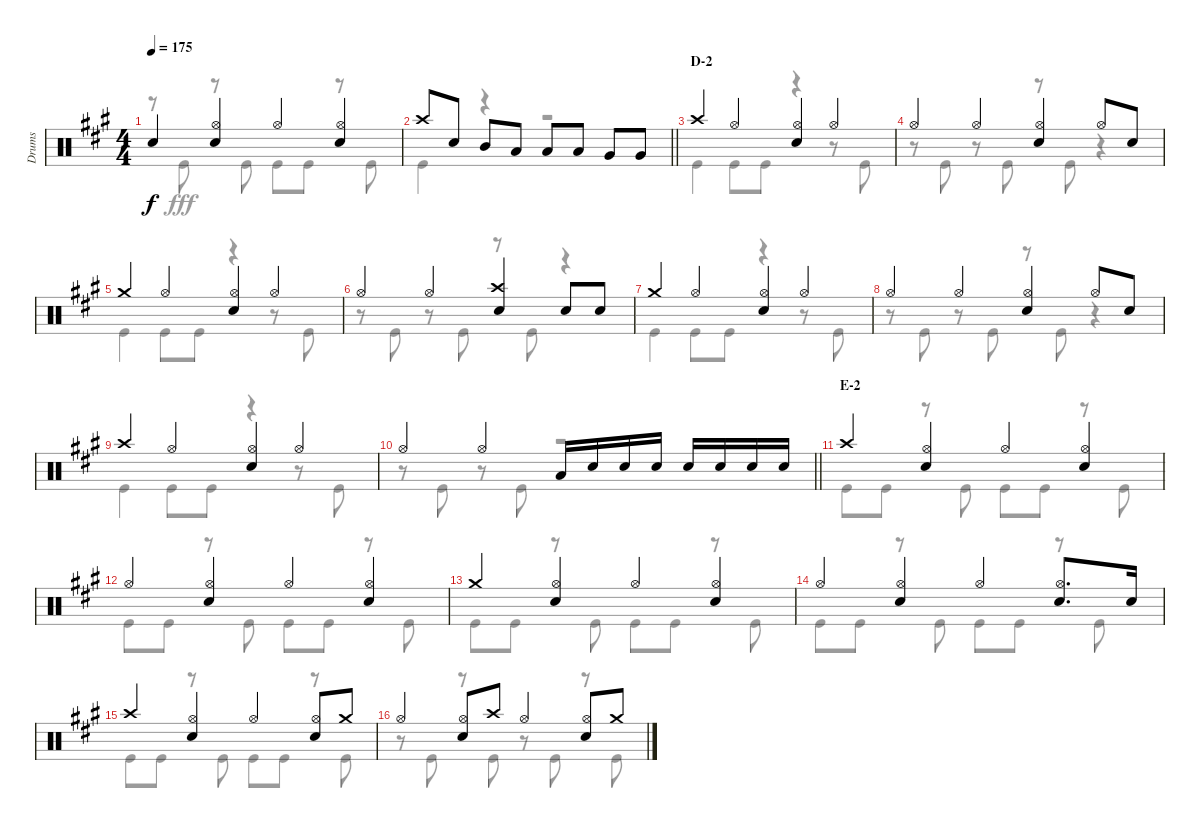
\track ("Drums" "Drums") {instrument percussion}
\staff {score}
\articulation defaults
\voice
\ts (4 4)
\tempo 175
\clef neutral
\ks a "Snare (hit)"{t}.4{dy f}
("Hi-Hat (open)" "Snare (hit) 2").4 "Hi-Hat (open)".4 ("Hi-Hat (open)" "Snare (hit) 2").4 |
\barLineRight lightlight "Crash high (hit)".8 "Snare (hit) 2".8 "Mid Tom (hit)".8 "Low Tom (hit)".8 "Low Tom (hit)".8 "Low Tom (hit)".8 "Very Low Tom (hit)".8 "Very Low Tom (hit)".8
|
\section ("" "D-2")
"Crash high (hit)".4 "Hi-Hat (open)".4 ("Hi-Hat (open)" "Snare (hit) 2").4 "Hi-Hat (open)".4 |
"Hi-Hat (open)".4 "Hi-Hat (open)".4 ("Hi-Hat (open)" "Snare (hit) 2").4 "Hi-Hat (open)".8 "Snare (hit) 2".8 |
"Crash medium (hit)".4 "Hi-Hat (open)".4 ("Hi-Hat (open)" "Snare (hit) 2").4 "Hi-Hat (open)".4 |
"Hi-Hat (open)".4 "Hi-Hat (open)".4 ("Crash high (hit)" "Snare (hit) 2").4 "Snare (hit) 2".8 "Snare (hit) 2".8 |
"Crash medium (hit)".4 "Hi-Hat (open)".4 ("Hi-Hat (open)" "Snare (hit) 2").4 "Hi-Hat (open)".4 |
"Hi-Hat (open)".4 "Hi-Hat (open)".4 ("Hi-Hat (open)" "Snare (hit) 2").4 "Hi-Hat (open)".8 "Snare (hit) 2".8 |
"Crash high (hit)".4 "Hi-Hat (open)".4 ("Hi-Hat (open)" "Snare (hit) 2").4 "Hi-Hat (open)".4 |
\barLineRight lightlight "Hi-Hat (open)".4 "Hi-Hat (open)".4 "Low Tom (hit)".16 "Snare (hit) 2".16 "Snare (hit) 2".16 "Snare (hit) 2".16 "Snare (hit) 2".16 "Snare (hit) 2".16 "Snare (hit) 2".16 "Snare (hit) 2".16
|
\section ("" "E-2")
"Crash high (hit)".4 ("Hi-Hat (open)" "Snare (hit) 2").4 "Hi-Hat (open)".4 ("Hi-Hat (open)" "Snare (hit) 2").4 |
"Hi-Hat (open)".4 ("Hi-Hat (open)" "Snare (hit) 2").4 "Hi-Hat (open)".4 ("Hi-Hat (open)" "Snare (hit) 2").4 |
"Crash medium (hit)".4 ("Hi-Hat (open)" "Snare (hit) 2").4 "Hi-Hat (open)".4 ("Hi-Hat (open)" "Snare (hit) 2").4 |
"Hi-Hat (open)".4 ("Hi-Hat (open)" "Snare (hit) 2").4 "Hi-Hat (open)".4 ("Hi-Hat (open)" "Snare (hit) 2").8{d} "Snare (hit) 2".16 |
"Crash high (hit)".4 ("Hi-Hat (open)" "Snare (hit) 2").4 "Hi-Hat (open)".4 ("Hi-Hat (open)" "Snare (hit) 2").8 "Crash medium (hit)".8 |
"Hi-Hat (open)".4 ("Hi-Hat (open)" "Snare (hit) 2").8 "Crash high (hit)".8 "Hi-Hat (open)".4 ("Hi-Hat (open)" "Snare (hit) 2").8 "Crash medium (hit)".8
\voice
\clef neutral
\ottava regular
\simile none
\ks a
r.8{dy fff} "Kick (hit)".8 r.8 "Kick (hit)".8 "Kick (hit)".8 "Kick (hit)".8 r.8 "Kick (hit)".8 |
\barLineRight lightlight "Kick (hit)".4
r.4 r.2 |
"Kick (hit)".4 "Kick (hit)".8 "Kick (hit)".8 r.4 r.8 "Kick (hit)".8 |
r.8 "Kick (hit)".8 r.8 "Kick (hit)".8 r.8 "Kick (hit)".8 r.4 |
"Kick (hit)".4 "Kick (hit)".8 "Kick (hit)".8 r.4 r.8 "Kick (hit)".8 |
r.8 "Kick (hit)".8 r.8 "Kick (hit)".8 r.8 "Kick (hit)".8 r.4 |
"Kick (hit)".4 "Kick (hit)".8 "Kick (hit)".8 r.4 r.8 "Kick (hit)".8 |
r.8 "Kick (hit)".8 r.8 "Kick (hit)".8 r.8 "Kick (hit)".8 r.4 |
"Kick (hit)".4 "Kick (hit)".8 "Kick (hit)".8 r.4 r.8 "Kick (hit)".8 |
\barLineRight lightlight
r.8 "Kick (hit)".8 r.8 "Kick (hit)".8 r.2 |
"Kick (hit)".8 "Kick (hit)".8 r.8 "Kick (hit)".8 "Kick (hit)".8 "Kick (hit)".8 r.8 "Kick (hit)".8 |
"Kick (hit)".8 "Kick (hit)".8 r.8 "Kick (hit)".8 "Kick (hit)".8 "Kick (hit)".8 r.8 "Kick (hit)".8 |
"Kick (hit)".8 "Kick (hit)".8 r.8 "Kick (hit)".8 "Kick (hit)".8 "Kick (hit)".8 r.8 "Kick (hit)".8 |
"Kick (hit)".8 "Kick (hit)".8 r.8 "Kick (hit)".8 "Kick (hit)".8 "Kick (hit)".8 r.8 "Kick (hit)".8 |
"Kick (hit)".8 "Kick (hit)".8 r.8 "Kick (hit)".8 "Kick (hit)".8 "Kick (hit)".8 r.8 "Kick (hit)".8 |
r.8 "Kick (hit)".8 r.8 "Kick (hit)".8 r.8 "Kick (hit)".8 r.8 "Kick (hit)".8
